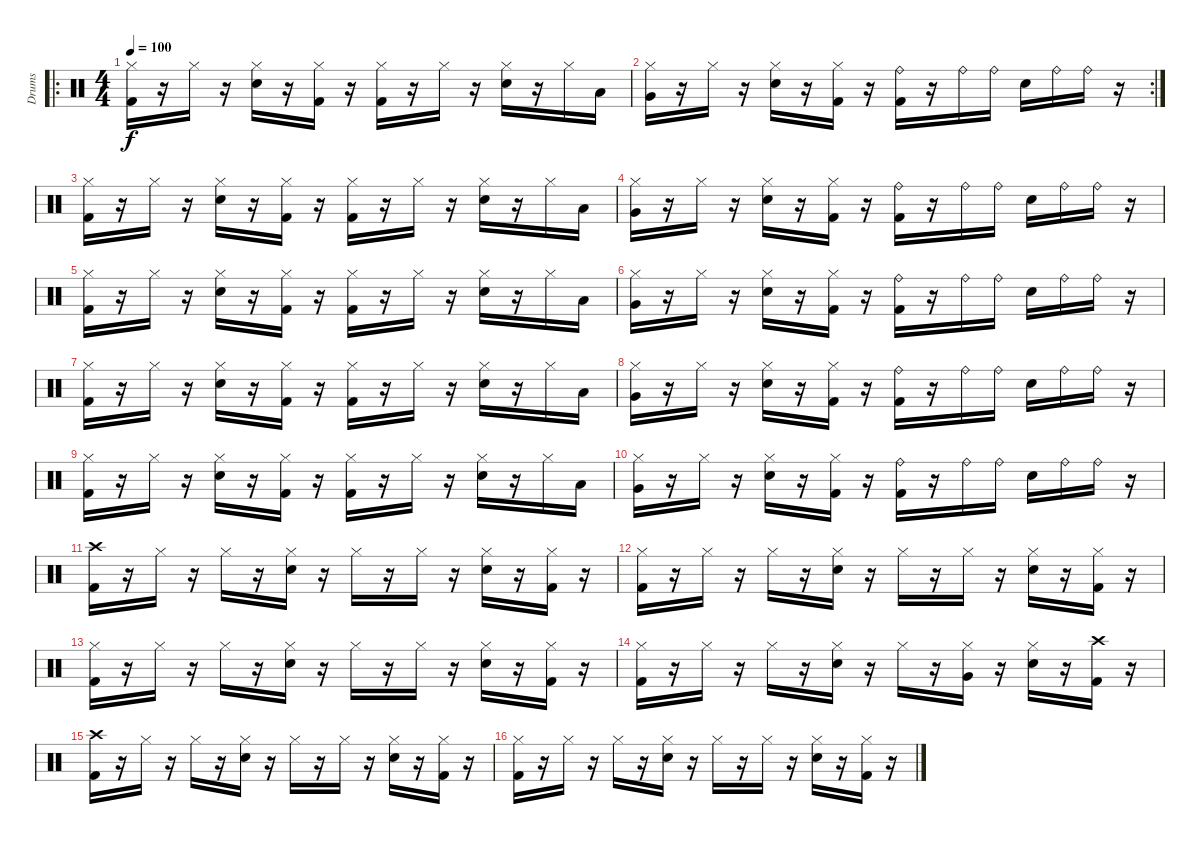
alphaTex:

\track ("Drums" "Drums") {instrument percussion}
\staff {score}
\articulation defaults
\ro
\ts (4 4)
\tempo 100
\clef neutral
\ks c
("Hi-Hat (closed)" "Kick (hit) 2").16{dy f} r.16 "Hi-Hat (closed)".16 r.16 ("Hi-Hat (closed)" "Snare (hit) 2").16 r.16 ("Hi-Hat (closed)" "Kick (hit) 2").16 r.16 ("Hi-Hat (closed)" "Kick (hit) 2").16 r.16 "Hi-Hat (closed)".16 r.16 ("Hi-Hat (closed)" "Snare (hit) 2").16 r.16 "Hi-Hat (closed)".16 "Low Floor Tom (hit)".16 |
\rc 2
("Hi-Hat (closed)" "Very Low Tom (hit)").16 r.16 "Hi-Hat (closed)".16 r.16 ("Hi-Hat (closed)" "Snare (hit) 2").16 r.16 ("Hi-Hat (closed)" "Kick (hit) 2").16 r.16 ("Ride (bell)" "Kick (hit) 2").16 r.16 "Ride (bell)".16 "Ride (bell)".16 "Snare (hit) 2".16 "Ride (bell)".16 "Ride (bell)".16 r.16 |
("Hi-Hat (closed)" "Kick (hit) 2").16 r.16 "Hi-Hat (closed)".16 r.16 ("Hi-Hat (closed)" "Snare (hit) 2").16 r.16 ("Hi-Hat (closed)" "Kick (hit) 2").16 r.16 ("Hi-Hat (closed)" "Kick (hit) 2").16 r.16 "Hi-Hat (closed)".16 r.16 ("Hi-Hat (closed)" "Snare (hit) 2").16 r.16 "Hi-Hat (closed)".16 "Low Floor Tom (hit)".16 |
("Hi-Hat (closed)" "Very Low Tom (hit)").16 r.16 "Hi-Hat (closed)".16 r.16 ("Hi-Hat (closed)" "Snare (hit) 2").16 r.16 ("Hi-Hat (closed)" "Kick (hit) 2").16 r.16 ("Ride (bell)" "Kick (hit) 2").16 r.16 "Ride (bell)".16 "Ride (bell)".16 "Snare (hit) 2".16 "Ride (bell)".16 "Ride (bell)".16 r.16 |
("Hi-Hat (closed)" "Kick (hit) 2").16 r.16 "Hi-Hat (closed)".16 r.16 ("Hi-Hat (closed)" "Snare (hit) 2").16 r.16 ("Hi-Hat (closed)" "Kick (hit) 2").16 r.16 ("Hi-Hat (closed)" "Kick (hit) 2").16 r.16 "Hi-Hat (closed)".16 r.16 ("Hi-Hat (closed)" "Snare (hit) 2").16 r.16 "Hi-Hat (closed)".16 "Low Floor Tom (hit)".16 |
("Hi-Hat (closed)" "Very Low Tom (hit)").16 r.16 "Hi-Hat (closed)".16 r.16 ("Hi-Hat (closed)" "Snare (hit) 2").16 r.16 ("Hi-Hat (closed)" "Kick (hit) 2").16 r.16 ("Ride (bell)" "Kick (hit) 2").16 r.16 "Ride (bell)".16 "Ride (bell)".16 "Snare (hit) 2".16 "Ride (bell)".16 "Ride (bell)".16 r.16 |
("Hi-Hat (closed)" "Kick (hit) 2").16 r.16 "Hi-Hat (closed)".16 r.16 ("Hi-Hat (closed)" "Snare (hit) 2").16 r.16 ("Hi-Hat (closed)" "Kick (hit) 2").16 r.16 ("Hi-Hat (closed)" "Kick (hit) 2").16 r.16 "Hi-Hat (closed)".16 r.16 ("Hi-Hat (closed)" "Snare (hit) 2").16 r.16 "Hi-Hat (closed)".16 "Low Floor Tom (hit)".16 |
("Hi-Hat (closed)" "Very Low Tom (hit)").16 r.16 "Hi-Hat (closed)".16 r.16 ("Hi-Hat (closed)" "Snare (hit) 2").16 r.16 ("Hi-Hat (closed)" "Kick (hit) 2").16 r.16 ("Ride (bell)" "Kick (hit) 2").16 r.16 "Ride (bell)".16 "Ride (bell)".16 "Snare (hit) 2".16 "Ride (bell)".16 "Ride (bell)".16 r.16 |
("Hi-Hat (closed)" "Kick (hit) 2").16 r.16 "Hi-Hat (closed)".16 r.16 ("Hi-Hat (closed)" "Snare (hit) 2").16 r.16 ("Hi-Hat (closed)" "Kick (hit) 2").16 r.16 ("Hi-Hat (closed)" "Kick (hit) 2").16 r.16 "Hi-Hat (closed)".16 r.16 ("Hi-Hat (closed)" "Snare (hit) 2").16 r.16 "Hi-Hat (closed)".16 "Low Floor Tom (hit)".16 |
("Hi-Hat (closed)" "Very Low Tom (hit)").16 r.16 "Hi-Hat (closed)".16 r.16 ("Hi-Hat (closed)" "Snare (hit) 2").16 r.16 ("Hi-Hat (closed)" "Kick (hit) 2").16 r.16 ("Ride (bell)" "Kick (hit) 2").16 r.16 "Ride (bell)".16 "Ride (bell)".16 "Snare (hit) 2".16 "Ride (bell)".16 "Ride (bell)".16 r.16 |
("Crash high (hit)" "Kick (hit) 2").16 r.16 "Hi-Hat (closed)".16 r.16 "Hi-Hat (closed)".16 r.16 ("Hi-Hat (closed)" "Snare (hit) 2").16 r.16 "Hi-Hat (closed)".16 r.16 "Hi-Hat (closed)".16 r.16 ("Hi-Hat (closed)" "Snare (hit) 2").16 r.16 ("Hi-Hat (closed)" "Kick (hit) 2").16 r.16 |
("Hi-Hat (closed)" "Kick (hit) 2").16 r.16 "Hi-Hat (closed)".16 r.16 "Hi-Hat (closed)".16 r.16 ("Hi-Hat (closed)" "Snare (hit) 2").16 r.16 "Hi-Hat (closed)".16 r.16 "Hi-Hat (closed)".16 r.16 ("Hi-Hat (closed)" "Snare (hit) 2").16 r.16 ("Hi-Hat (closed)" "Kick (hit) 2").16 r.16 |
("Hi-Hat (closed)" "Kick (hit) 2").16 r.16 "Hi-Hat (closed)".16 r.16 "Hi-Hat (closed)".16 r.16 ("Hi-Hat (closed)" "Snare (hit) 2").16 r.16 "Hi-Hat (closed)".16 r.16 "Hi-Hat (closed)".16 r.16 ("Hi-Hat (closed)" "Snare (hit) 2").16 r.16 ("Hi-Hat (closed)" "Kick (hit) 2").16 r.16 |
("Hi-Hat (closed)" "Kick (hit) 2").16 r.16 "Hi-Hat (closed)".16 r.16 "Hi-Hat (closed)".16 r.16 ("Hi-Hat (closed)" "Snare (hit) 2").16 r.16 "Hi-Hat (closed)".16 r.16 ("Hi-Hat (closed)" "Very Low Tom (hit)").16 r.16 ("Hi-Hat (closed)" "Snare (hit) 2").16 r.16 ("Crash high (hit)" "Kick (hit) 2").16 r.16 |
("Crash high (hit)" "Kick (hit) 2").16 r.16 "Hi-Hat (closed)".16 r.16 "Hi-Hat (closed)".16 r.16 ("Hi-Hat (closed)" "Snare (hit) 2").16 r.16 "Hi-Hat (closed)".16 r.16 "Hi-Hat (closed)".16 r.16 ("Hi-Hat (closed)" "Snare (hit) 2").16 r.16 ("Hi-Hat (closed)" "Kick (hit) 2").16 r.16 |
("Hi-Hat (closed)" "Kick (hit) 2").16 r.16 "Hi-Hat (closed)".16 r.16 "Hi-Hat (closed)".16 r.16 ("Hi-Hat (closed)" "Snare (hit) 2").16 r.16 "Hi-Hat (closed)".16 r.16 "Hi-Hat (closed)".16 r.16 ("Hi-Hat (closed)" "Snare (hit) 2").16 r.16 ("Hi-Hat (closed)" "Kick (hit) 2").16 r.16
